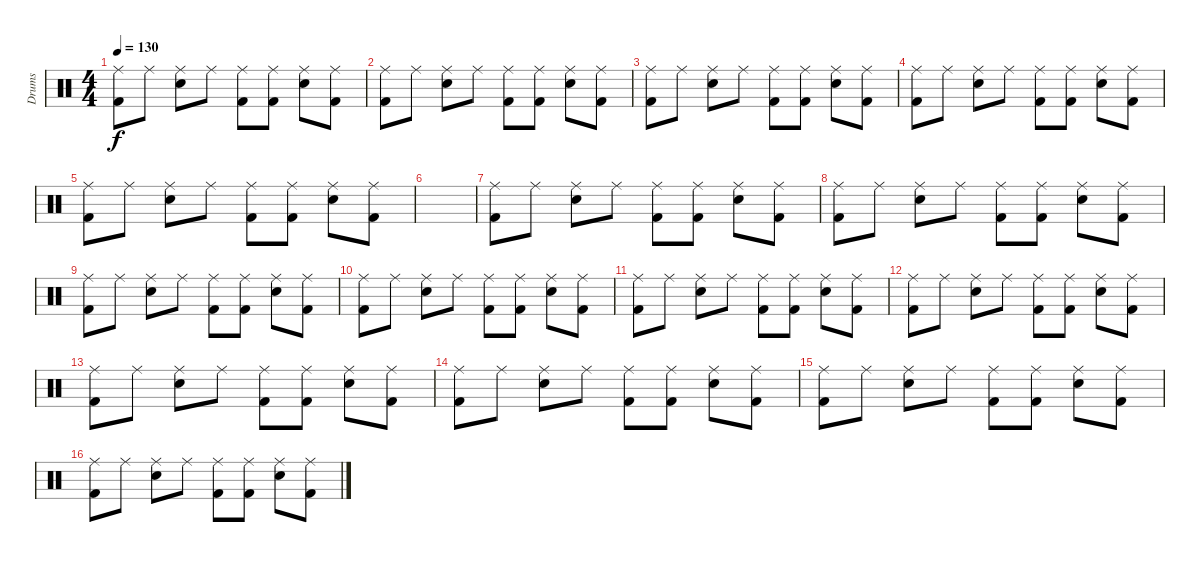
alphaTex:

\track ("Drums" "Drums") {instrument percussion}
\staff {score}
\articulation defaults
\ts (4 4)
\tempo 130
\clef neutral
\ks c
("Ride (middle)" "Kick (hit) 2").8{dy f} "Ride (middle)".8 ("Ride (middle)" "Electric Snare (hit)").8 "Ride (middle)".8 ("Ride (middle)" "Kick (hit) 2").8 ("Ride (middle)" "Kick (hit) 2").8 ("Ride (middle)" "Electric Snare (hit)").8 ("Ride (middle)" "Kick (hit) 2").8 |
("Ride (middle)" "Kick (hit) 2").8 "Ride (middle)".8 ("Ride (middle)" "Electric Snare (hit)").8 "Ride (middle)".8 ("Ride (middle)" "Kick (hit) 2").8 ("Ride (middle)" "Kick (hit) 2").8 ("Ride (middle)" "Electric Snare (hit)").8 ("Ride (middle)" "Kick (hit) 2").8 |
("Ride (middle)" "Kick (hit) 2").8 "Ride (middle)".8 ("Ride (middle)" "Electric Snare (hit)").8 "Ride (middle)".8 ("Ride (middle)" "Kick (hit) 2").8 ("Ride (middle)" "Kick (hit) 2").8 ("Ride (middle)" "Electric Snare (hit)").8 ("Ride (middle)" "Kick (hit) 2").8 |
("Ride (middle)" "Kick (hit) 2").8 "Ride (middle)".8 ("Ride (middle)" "Electric Snare (hit)").8 "Ride (middle)".8 ("Ride (middle)" "Kick (hit) 2").8 ("Ride (middle)" "Kick (hit) 2").8 ("Ride (middle)" "Electric Snare (hit)").8 ("Ride (middle)" "Kick (hit) 2").8 |
("Ride (middle)" "Kick (hit) 2").8 "Ride (middle)".8 ("Ride (middle)" "Electric Snare (hit)").8 "Ride (middle)".8 ("Ride (middle)" "Kick (hit) 2").8 ("Ride (middle)" "Kick (hit) 2").8 ("Ride (middle)" "Electric Snare (hit)").8 ("Ride (middle)" "Kick (hit) 2").8 |
|
("Ride (middle)" "Kick (hit) 2").8 "Ride (middle)".8 ("Ride (middle)" "Electric Snare (hit)").8 "Ride (middle)".8 ("Ride (middle)" "Kick (hit) 2").8 ("Ride (middle)" "Kick (hit) 2").8 ("Ride (middle)" "Electric Snare (hit)").8 ("Ride (middle)" "Kick (hit) 2").8 |
("Ride (middle)" "Kick (hit) 2").8 "Ride (middle)".8 ("Ride (middle)" "Electric Snare (hit)").8 "Ride (middle)".8 ("Ride (middle)" "Kick (hit) 2").8 ("Ride (middle)" "Kick (hit) 2").8 ("Ride (middle)" "Electric Snare (hit)").8 ("Ride (middle)" "Kick (hit) 2").8 |
("Ride (middle)" "Kick (hit) 2").8 "Ride (middle)".8 ("Ride (middle)" "Electric Snare (hit)").8 "Ride (middle)".8 ("Ride (middle)" "Kick (hit) 2").8 ("Ride (middle)" "Kick (hit) 2").8 ("Ride (middle)" "Electric Snare (hit)").8 ("Ride (middle)" "Kick (hit) 2").8 |
("Ride (middle)" "Kick (hit) 2").8 "Ride (middle)".8 ("Ride (middle)" "Electric Snare (hit)").8 "Ride (middle)".8 ("Ride (middle)" "Kick (hit) 2").8 ("Ride (middle)" "Kick (hit) 2").8 ("Ride (middle)" "Electric Snare (hit)").8 ("Ride (middle)" "Kick (hit) 2").8 |
("Ride (middle)" "Kick (hit) 2").8 "Ride (middle)".8 ("Ride (middle)" "Electric Snare (hit)").8 "Ride (middle)".8 ("Ride (middle)" "Kick (hit) 2").8 ("Ride (middle)" "Kick (hit) 2").8 ("Ride (middle)" "Electric Snare (hit)").8 ("Ride (middle)" "Kick (hit) 2").8 |
("Ride (middle)" "Kick (hit) 2").8 "Ride (middle)".8 ("Ride (middle)" "Electric Snare (hit)").8 "Ride (middle)".8 ("Ride (middle)" "Kick (hit) 2").8 ("Ride (middle)" "Kick (hit) 2").8 ("Ride (middle)" "Electric Snare (hit)").8 ("Ride (middle)" "Kick (hit) 2").8 |
("Ride (middle)" "Kick (hit) 2").8 "Ride (middle)".8 ("Ride (middle)" "Electric Snare (hit)").8 "Ride (middle)".8 ("Ride (middle)" "Kick (hit) 2").8 ("Ride (middle)" "Kick (hit) 2").8 ("Ride (middle)" "Electric Snare (hit)").8 ("Ride (middle)" "Kick (hit) 2").8 |
("Ride (middle)" "Kick (hit) 2").8 "Ride (middle)".8 ("Ride (middle)" "Electric Snare (hit)").8 "Ride (middle)".8 ("Ride (middle)" "Kick (hit) 2").8 ("Ride (middle)" "Kick (hit) 2").8 ("Ride (middle)" "Electric Snare (hit)").8 ("Ride (middle)" "Kick (hit) 2").8 |
("Ride (middle)" "Kick (hit) 2").8 "Ride (middle)".8 ("Ride (middle)" "Electric Snare (hit)").8 "Ride (middle)".8 ("Ride (middle)" "Kick (hit) 2").8 ("Ride (middle)" "Kick (hit) 2").8 ("Ride (middle)" "Electric Snare (hit)").8 ("Ride (middle)" "Kick (hit) 2").8 |
("Ride (middle)" "Kick (hit) 2").8 "Ride (middle)".8 ("Ride (middle)" "Electric Snare (hit)").8 "Ride (middle)".8 ("Ride (middle)" "Kick (hit) 2").8 ("Ride (middle)" "Kick (hit) 2").8 ("Ride (middle)" "Electric Snare (hit)").8 ("Ride (middle)" "Kick (hit) 2").8
